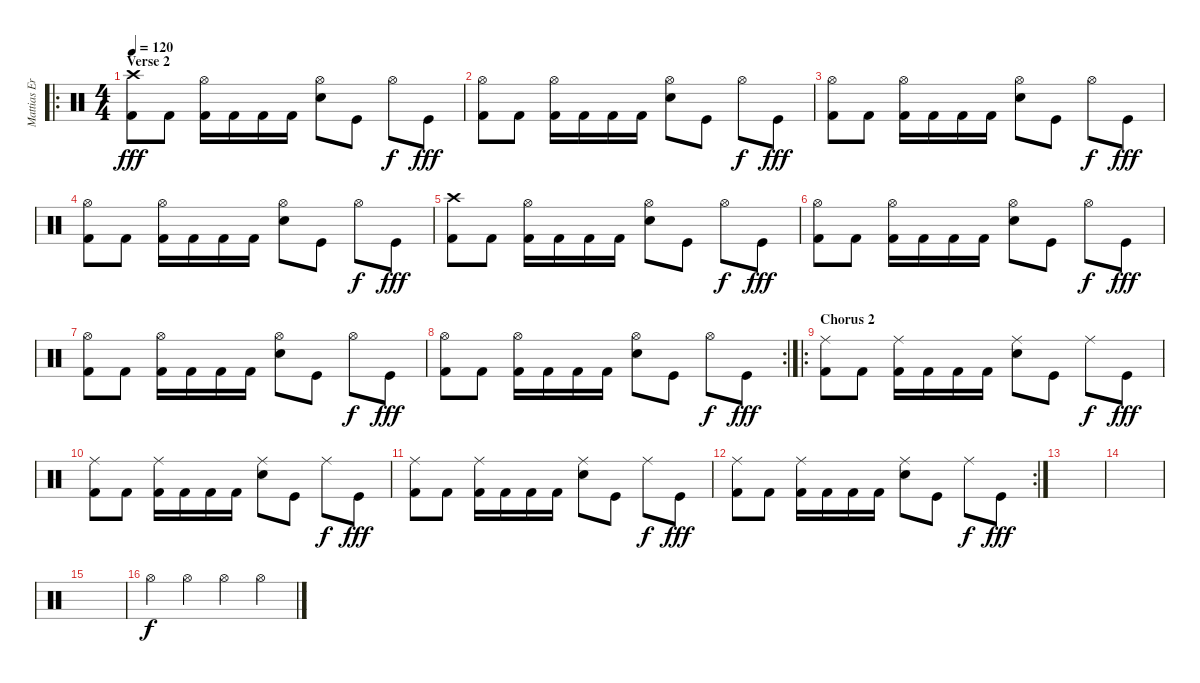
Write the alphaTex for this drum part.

\track ("Mattias Eriksson" "Mattias Er") {instrument percussion}
\staff {score}
\articulation defaults
\ro
\ts (4 4)
\section ("" "Verse 2")
\tempo 120
\clef neutral
\ks c
("Crash high (hit)" "Kick (hit) 2").8{dy fff} "Kick (hit) 2".8 ("Hi-Hat (open)" "Kick (hit) 2").16 "Kick (hit) 2".16 "Kick (hit) 2".16 "Kick (hit) 2".16 ("Hi-Hat (open)" "Electric Snare (hit)").8 "Kick (hit)".8 "Hi-Hat (open)".8{dy f} "Kick (hit)".8{dy fff} |
("Hi-Hat (open)" "Kick (hit) 2").8 "Kick (hit) 2".8 ("Hi-Hat (open)" "Kick (hit) 2").16 "Kick (hit) 2".16 "Kick (hit) 2".16 "Kick (hit) 2".16 ("Hi-Hat (open)" "Electric Snare (hit)").8 "Kick (hit)".8 "Hi-Hat (open)".8{dy f} "Kick (hit)".8{dy fff} |
("Hi-Hat (open)" "Kick (hit) 2").8 "Kick (hit) 2".8 ("Hi-Hat (open)" "Kick (hit) 2").16 "Kick (hit) 2".16 "Kick (hit) 2".16 "Kick (hit) 2".16 ("Hi-Hat (open)" "Electric Snare (hit)").8 "Kick (hit)".8 "Hi-Hat (open)".8{dy f} "Kick (hit)".8{dy fff} |
("Hi-Hat (open)" "Kick (hit) 2").8 "Kick (hit) 2".8 ("Hi-Hat (open)" "Kick (hit) 2").16 "Kick (hit) 2".16 "Kick (hit) 2".16 "Kick (hit) 2".16 ("Hi-Hat (open)" "Electric Snare (hit)").8 "Kick (hit)".8 "Hi-Hat (open)".8{dy f} "Kick (hit)".8{dy fff} |
("Crash high (hit)" "Kick (hit) 2").8 "Kick (hit) 2".8 ("Hi-Hat (open)" "Kick (hit) 2").16 "Kick (hit) 2".16 "Kick (hit) 2".16 "Kick (hit) 2".16 ("Hi-Hat (open)" "Electric Snare (hit)").8 "Kick (hit)".8 "Hi-Hat (open)".8{dy f} "Kick (hit)".8{dy fff} |
("Hi-Hat (open)" "Kick (hit) 2").8 "Kick (hit) 2".8 ("Hi-Hat (open)" "Kick (hit) 2").16 "Kick (hit) 2".16 "Kick (hit) 2".16 "Kick (hit) 2".16 ("Hi-Hat (open)" "Electric Snare (hit)").8 "Kick (hit)".8 "Hi-Hat (open)".8{dy f} "Kick (hit)".8{dy fff} |
("Hi-Hat (open)" "Kick (hit) 2").8 "Kick (hit) 2".8 ("Hi-Hat (open)" "Kick (hit) 2").16 "Kick (hit) 2".16 "Kick (hit) 2".16 "Kick (hit) 2".16 ("Hi-Hat (open)" "Electric Snare (hit)").8 "Kick (hit)".8 "Hi-Hat (open)".8{dy f} "Kick (hit)".8{dy fff} |
\rc 2
("Hi-Hat (open)" "Kick (hit) 2").8 "Kick (hit) 2".8 ("Hi-Hat (open)" "Kick (hit) 2").16 "Kick (hit) 2".16 "Kick (hit) 2".16 "Kick (hit) 2".16 ("Hi-Hat (open)" "Electric Snare (hit)").8 "Kick (hit)".8 "Hi-Hat (open)".8{dy f} "Kick (hit)".8{dy fff} |
\ro
\section ("" "Chorus 2")
("Ride (middle)" "Kick (hit) 2").8 "Kick (hit) 2".8 ("Ride (middle)" "Kick (hit) 2").16 "Kick (hit) 2".16 "Kick (hit) 2".16 "Kick (hit) 2".16 ("Ride (middle)" "Electric Snare (hit)").8 "Kick (hit)".8 "Ride (middle)".8{dy f} "Kick (hit)".8{dy fff} |
("Ride (middle)" "Kick (hit) 2").8 "Kick (hit) 2".8 ("Ride (middle)" "Kick (hit) 2").16 "Kick (hit) 2".16 "Kick (hit) 2".16 "Kick (hit) 2".16 ("Ride (middle)" "Electric Snare (hit)").8 "Kick (hit)".8 "Ride (middle)".8{dy f} "Kick (hit)".8{dy fff} |
("Ride (middle)" "Kick (hit) 2").8 "Kick (hit) 2".8 ("Ride (middle)" "Kick (hit) 2").16 "Kick (hit) 2".16 "Kick (hit) 2".16 "Kick (hit) 2".16 ("Ride (middle)" "Electric Snare (hit)").8 "Kick (hit)".8 "Ride (middle)".8{dy f} "Kick (hit)".8{dy fff} |
\rc 2
("Ride (middle)" "Kick (hit) 2").8 "Kick (hit) 2".8 ("Ride (middle)" "Kick (hit) 2").16 "Kick (hit) 2".16 "Kick (hit) 2".16 "Kick (hit) 2".16 ("Ride (middle)" "Electric Snare (hit)").8 "Kick (hit)".8 "Ride (middle)".8{dy f} "Kick (hit)".8{dy fff} |
|
|
|
"Hi-Hat (open)".4{dy f} "Hi-Hat (open)".4 "Hi-Hat (open)".4 "Hi-Hat (open)".4
